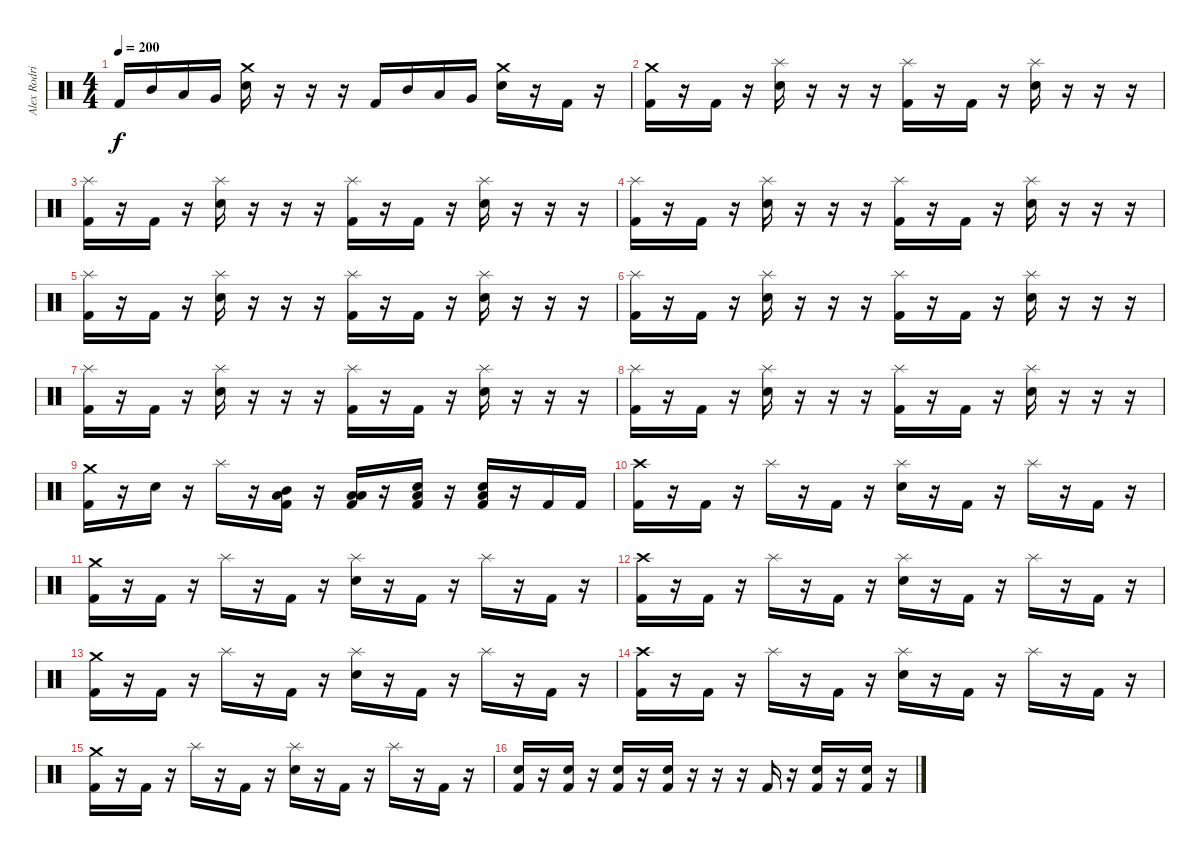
\track ("Alex Rodriguez" "Alex Rodri") {instrument percussion}
\staff {score}
\articulation defaults
\ts (4 4)
\tempo 200
\clef neutral
\ks c "Kick (hit) 2".16{dy f} "Mid Tom (hit)".16 "Low Tom (hit)".16 "Very Low Tom (hit)".16
("Crash medium (hit)" "Electric Snare (hit)").16 r.16 r.16 r.16 "Kick (hit) 2".16 "Mid Tom (hit)".16 "Low Tom (hit)".16 "Very Low Tom (hit)".16 ("Crash medium (hit)" "Electric Snare (hit)").16 r.16 "Kick (hit) 2".16 r.16 |
("Crash medium (hit)" "Kick (hit) 2").16 r.16 "Kick (hit) 2".16 r.16 ("Splash (hit)" "Electric Snare (hit)").16 r.16 r.16 r.16 ("Splash (hit)" "Kick (hit) 2").16 r.16 "Kick (hit) 2".16 r.16 ("Splash (hit)" "Electric Snare (hit)").16 r.16 r.16 r.16 |
("Splash (hit)" "Kick (hit) 2").16 r.16 "Kick (hit) 2".16 r.16 ("Splash (hit)" "Electric Snare (hit)").16 r.16 r.16 r.16 ("Splash (hit)" "Kick (hit) 2").16 r.16 "Kick (hit) 2".16 r.16 ("Splash (hit)" "Electric Snare (hit)").16 r.16 r.16 r.16 |
("Splash (hit)" "Kick (hit) 2").16 r.16 "Kick (hit) 2".16 r.16 ("Splash (hit)" "Electric Snare (hit)").16 r.16 r.16 r.16 ("Splash (hit)" "Kick (hit) 2").16 r.16 "Kick (hit) 2".16 r.16 ("Splash (hit)" "Electric Snare (hit)").16 r.16 r.16 r.16 |
("Splash (hit)" "Kick (hit) 2").16 r.16 "Kick (hit) 2".16 r.16 ("Splash (hit)" "Electric Snare (hit)").16 r.16 r.16 r.16 ("Splash (hit)" "Kick (hit) 2").16 r.16 "Kick (hit) 2".16 r.16 ("Splash (hit)" "Electric Snare (hit)").16 r.16 r.16 r.16 |
("Splash (hit)" "Kick (hit) 2").16 r.16 "Kick (hit) 2".16 r.16 ("Splash (hit)" "Electric Snare (hit)").16 r.16 r.16 r.16 ("Splash (hit)" "Kick (hit) 2").16 r.16 "Kick (hit) 2".16 r.16 ("Splash (hit)" "Electric Snare (hit)").16 r.16 r.16 r.16 |
("Splash (hit)" "Kick (hit) 2").16 r.16 "Kick (hit) 2".16 r.16 ("Splash (hit)" "Electric Snare (hit)").16 r.16 r.16 r.16 ("Splash (hit)" "Kick (hit) 2").16 r.16 "Kick (hit) 2".16 r.16 ("Splash (hit)" "Electric Snare (hit)").16 r.16 r.16 r.16 |
("Splash (hit)" "Kick (hit) 2").16 r.16 "Kick (hit) 2".16 r.16 ("Splash (hit)" "Electric Snare (hit)").16 r.16 r.16 r.16 ("Splash (hit)" "Kick (hit) 2").16 r.16 "Kick (hit) 2".16 r.16 ("Splash (hit)" "Electric Snare (hit)").16 r.16 r.16 r.16 |
("Crash medium (hit)" "Kick (hit) 2").16 r.16 "Electric Snare (hit)".16 r.16 "Splash (hit)".16 r.16 ("Mid Tom (hit)" "Low Floor Tom (hit)" "Kick (hit) 2").16 r.16 ("Low Tom (hit)" "Low Floor Tom (hit)" "Kick (hit) 2").16 r.16 ("Electric Snare (hit)" "Low Floor Tom (hit)" "Kick (hit) 2").16 r.16 ("Electric Snare (hit)" "Low Floor Tom (hit)" "Kick (hit) 2").16 r.16 "Kick (hit) 2".16 "Kick (hit) 2".16 |
("Crash high (hit)" "Kick (hit) 2").16 r.16 "Kick (hit) 2".16 r.16 "Splash (hit)".16 r.16 "Kick (hit) 2".16 r.16 ("Splash (hit)" "Electric Snare (hit)").16 r.16 "Kick (hit) 2".16 r.16 "Splash (hit)".16 r.16 "Kick (hit) 2".16 r.16 |
("Crash medium (hit)" "Kick (hit) 2").16 r.16 "Kick (hit) 2".16 r.16 "Splash (hit)".16 r.16 "Kick (hit) 2".16 r.16 ("Splash (hit)" "Electric Snare (hit)").16 r.16 "Kick (hit) 2".16 r.16 "Splash (hit)".16 r.16 "Kick (hit) 2".16 r.16 |
("Crash high (hit)" "Kick (hit) 2").16 r.16 "Kick (hit) 2".16 r.16 "Splash (hit)".16 r.16 "Kick (hit) 2".16 r.16 ("Splash (hit)" "Electric Snare (hit)").16 r.16 "Kick (hit) 2".16 r.16 "Splash (hit)".16 r.16 "Kick (hit) 2".16 r.16 |
("Crash medium (hit)" "Kick (hit) 2").16 r.16 "Kick (hit) 2".16 r.16 "Splash (hit)".16 r.16 "Kick (hit) 2".16 r.16 ("Splash (hit)" "Electric Snare (hit)").16 r.16 "Kick (hit) 2".16 r.16 "Splash (hit)".16 r.16 "Kick (hit) 2".16 r.16 |
("Crash high (hit)" "Kick (hit) 2").16 r.16 "Kick (hit) 2".16 r.16 "Splash (hit)".16 r.16 "Kick (hit) 2".16 r.16 ("Splash (hit)" "Electric Snare (hit)").16 r.16 "Kick (hit) 2".16 r.16 "Splash (hit)".16 r.16 "Kick (hit) 2".16 r.16 |
("Crash medium (hit)" "Kick (hit) 2").16 r.16 "Kick (hit) 2".16 r.16 "Splash (hit)".16 r.16 "Kick (hit) 2".16 r.16 ("Splash (hit)" "Electric Snare (hit)").16 r.16 "Kick (hit) 2".16 r.16 "Splash (hit)".16 r.16 "Kick (hit) 2".16 r.16 |
("Electric Snare (hit)" "Kick (hit) 2").16 r.16 ("Electric Snare (hit)" "Kick (hit) 2").16 r.16 ("Electric Snare (hit)" "Kick (hit) 2").16 r.16 ("Electric Snare (hit)" "Kick (hit) 2").16 r.16 r.16 r.16 "Kick (hit) 2".16 r.16 ("Electric Snare (hit)" "Kick (hit) 2").16 r.16 ("Electric Snare (hit)" "Kick (hit) 2").16 r.16
